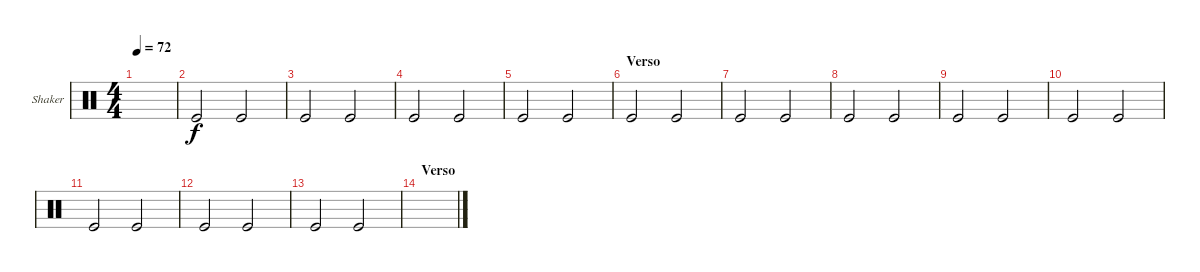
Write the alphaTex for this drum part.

\defaultSystemsLayout 4
\bracketExtendMode groupsimilarinstruments
\firstSystemTrackNameOrientation horizontal
\otherSystemsTrackNameOrientation horizontal
\track ("Shaker" "Shaker") {instrument percussion}
\staff {score}
\articulation defaults
\ts (4 4)
\tempo 72
\clef neutral
\ks c
|
"Kick (hit)".2 "Kick (hit)".2 |
"Kick (hit)".2 "Kick (hit)".2 |
"Kick (hit)".2 "Kick (hit)".2 |
"Kick (hit)".2 "Kick (hit)".2 |
\section ("" "Verso")
"Kick (hit)".2 "Kick (hit)".2 |
"Kick (hit)".2 "Kick (hit)".2 |
"Kick (hit)".2 "Kick (hit)".2 |
"Kick (hit)".2 "Kick (hit)".2 |
"Kick (hit)".2 "Kick (hit)".2 |
"Kick (hit)".2 "Kick (hit)".2 |
"Kick (hit)".2 "Kick (hit)".2 |
"Kick (hit)".2 "Kick (hit)".2 |
\section ("" "Verso")
